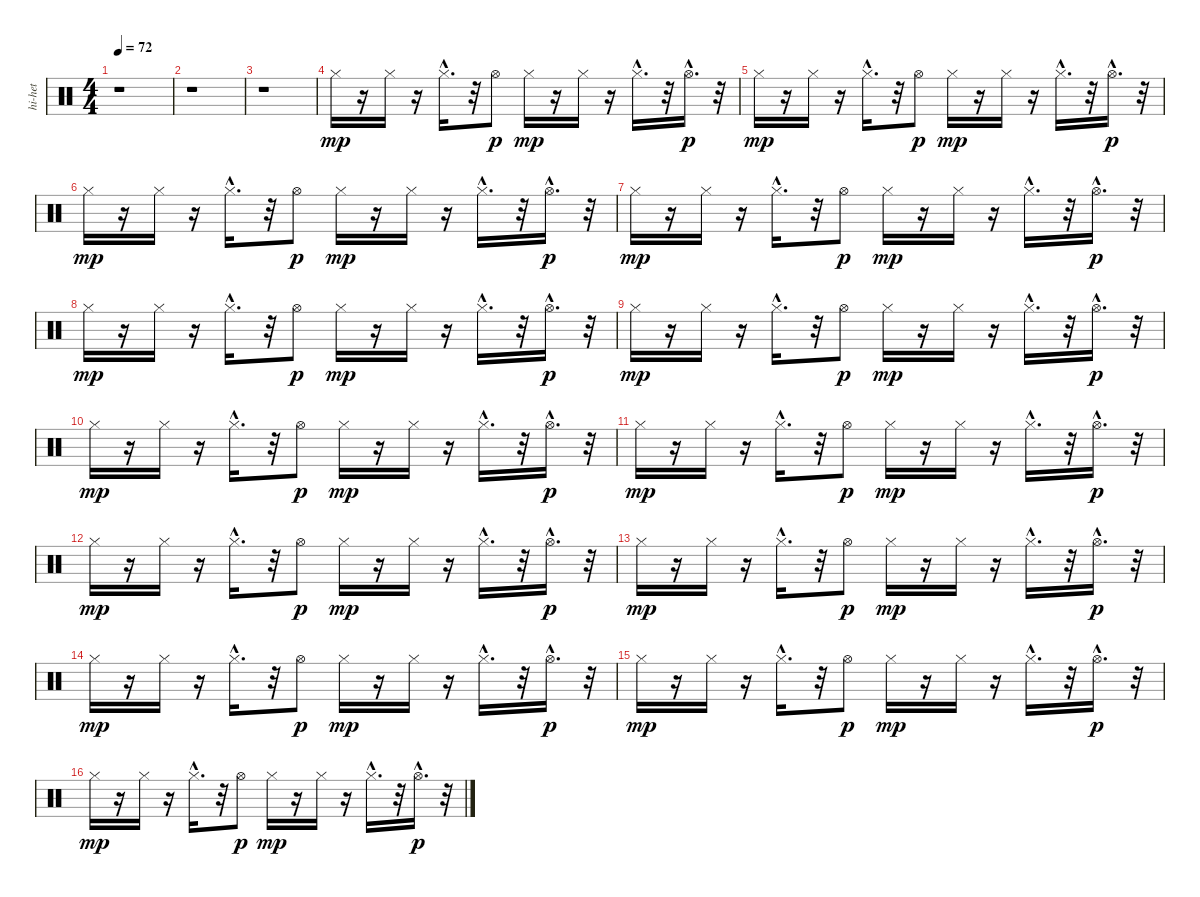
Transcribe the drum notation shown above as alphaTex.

\track ("hi-het" "hi-het") {instrument percussion}
\staff {score}
\articulation defaults
\ts (4 4)
\tempo 72
\clef neutral
\ks c
r.1{dy p} |
r.1 |
r.1 |
"Hi-Hat (closed)".16{dy mp} r.16 "Hi-Hat (closed)".16 r.16 "Hi-Hat (closed)"{hac}.16{d} r.32 "Hi-Hat (open)".8{dy p} "Hi-Hat (closed)".16{dy mp} r.16 "Hi-Hat (closed)".16 r.16 "Hi-Hat (closed)"{hac}.16{d} r.32 "Hi-Hat (open)"{hac}.16{d dy p} r.32 |
"Hi-Hat (closed)".16{dy mp} r.16 "Hi-Hat (closed)".16 r.16 "Hi-Hat (closed)"{hac}.16{d} r.32 "Hi-Hat (open)".8{dy p} "Hi-Hat (closed)".16{dy mp} r.16 "Hi-Hat (closed)".16 r.16 "Hi-Hat (closed)"{hac}.16{d} r.32 "Hi-Hat (open)"{hac}.16{d dy p} r.32 |
"Hi-Hat (closed)".16{dy mp} r.16 "Hi-Hat (closed)".16 r.16 "Hi-Hat (closed)"{hac}.16{d} r.32 "Hi-Hat (open)".8{dy p} "Hi-Hat (closed)".16{dy mp} r.16 "Hi-Hat (closed)".16 r.16 "Hi-Hat (closed)"{hac}.16{d} r.32 "Hi-Hat (open)"{hac}.16{d dy p} r.32 |
"Hi-Hat (closed)".16{dy mp} r.16 "Hi-Hat (closed)".16 r.16 "Hi-Hat (closed)"{hac}.16{d} r.32 "Hi-Hat (open)".8{dy p} "Hi-Hat (closed)".16{dy mp} r.16 "Hi-Hat (closed)".16 r.16 "Hi-Hat (closed)"{hac}.16{d} r.32 "Hi-Hat (open)"{hac}.16{d dy p} r.32 |
"Hi-Hat (closed)".16{dy mp} r.16 "Hi-Hat (closed)".16 r.16 "Hi-Hat (closed)"{hac}.16{d} r.32 "Hi-Hat (open)".8{dy p} "Hi-Hat (closed)".16{dy mp} r.16 "Hi-Hat (closed)".16 r.16 "Hi-Hat (closed)"{hac}.16{d} r.32 "Hi-Hat (open)"{hac}.16{d dy p} r.32 |
"Hi-Hat (closed)".16{dy mp} r.16 "Hi-Hat (closed)".16 r.16 "Hi-Hat (closed)"{hac}.16{d} r.32 "Hi-Hat (open)".8{dy p} "Hi-Hat (closed)".16{dy mp} r.16 "Hi-Hat (closed)".16 r.16 "Hi-Hat (closed)"{hac}.16{d} r.32 "Hi-Hat (open)"{hac}.16{d dy p} r.32 |
"Hi-Hat (closed)".16{dy mp} r.16 "Hi-Hat (closed)".16 r.16 "Hi-Hat (closed)"{hac}.16{d} r.32 "Hi-Hat (open)".8{dy p} "Hi-Hat (closed)".16{dy mp} r.16 "Hi-Hat (closed)".16 r.16 "Hi-Hat (closed)"{hac}.16{d} r.32 "Hi-Hat (open)"{hac}.16{d dy p} r.32 |
"Hi-Hat (closed)".16{dy mp} r.16 "Hi-Hat (closed)".16 r.16 "Hi-Hat (closed)"{hac}.16{d} r.32 "Hi-Hat (open)".8{dy p} "Hi-Hat (closed)".16{dy mp} r.16 "Hi-Hat (closed)".16 r.16 "Hi-Hat (closed)"{hac}.16{d} r.32 "Hi-Hat (open)"{hac}.16{d dy p} r.32 |
"Hi-Hat (closed)".16{dy mp} r.16 "Hi-Hat (closed)".16 r.16 "Hi-Hat (closed)"{hac}.16{d} r.32 "Hi-Hat (open)".8{dy p} "Hi-Hat (closed)".16{dy mp} r.16 "Hi-Hat (closed)".16 r.16 "Hi-Hat (closed)"{hac}.16{d} r.32 "Hi-Hat (open)"{hac}.16{d dy p} r.32 |
"Hi-Hat (closed)".16{dy mp} r.16 "Hi-Hat (closed)".16 r.16 "Hi-Hat (closed)"{hac}.16{d} r.32 "Hi-Hat (open)".8{dy p} "Hi-Hat (closed)".16{dy mp} r.16 "Hi-Hat (closed)".16 r.16 "Hi-Hat (closed)"{hac}.16{d} r.32 "Hi-Hat (open)"{hac}.16{d dy p} r.32 |
"Hi-Hat (closed)".16{dy mp} r.16 "Hi-Hat (closed)".16 r.16 "Hi-Hat (closed)"{hac}.16{d} r.32 "Hi-Hat (open)".8{dy p} "Hi-Hat (closed)".16{dy mp} r.16 "Hi-Hat (closed)".16 r.16 "Hi-Hat (closed)"{hac}.16{d} r.32 "Hi-Hat (open)"{hac}.16{d dy p} r.32 |
"Hi-Hat (closed)".16{dy mp} r.16 "Hi-Hat (closed)".16 r.16 "Hi-Hat (closed)"{hac}.16{d} r.32 "Hi-Hat (open)".8{dy p} "Hi-Hat (closed)".16{dy mp} r.16 "Hi-Hat (closed)".16 r.16 "Hi-Hat (closed)"{hac}.16{d} r.32 "Hi-Hat (open)"{hac}.16{d dy p} r.32 |
"Hi-Hat (closed)".16{dy mp} r.16 "Hi-Hat (closed)".16 r.16 "Hi-Hat (closed)"{hac}.16{d} r.32 "Hi-Hat (open)".8{dy p} "Hi-Hat (closed)".16{dy mp} r.16 "Hi-Hat (closed)".16 r.16 "Hi-Hat (closed)"{hac}.16{d} r.32 "Hi-Hat (open)"{hac}.16{d dy p} r.32
